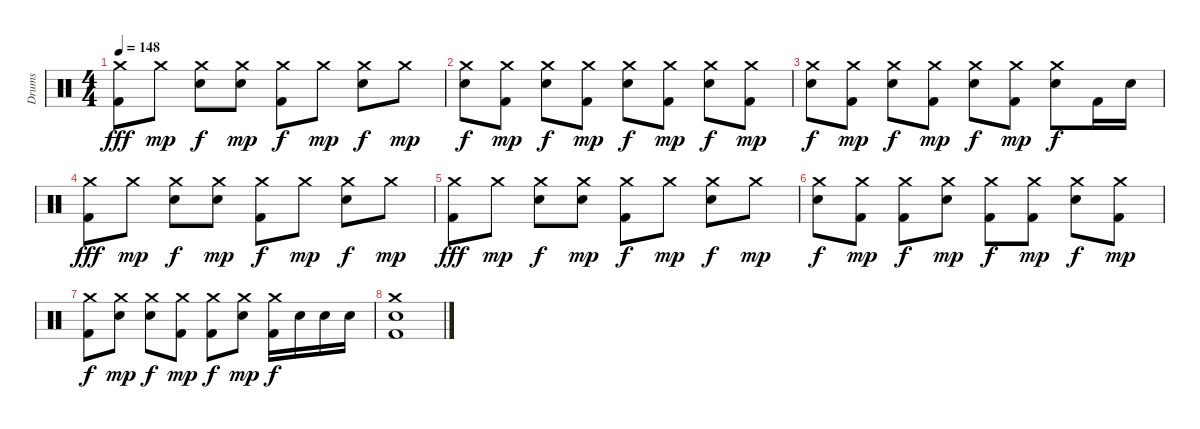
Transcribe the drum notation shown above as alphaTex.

\track ("Drums" "Drums") {instrument percussion}
\staff {score}
\articulation defaults
\ts (4 4)
\tempo 148
\clef neutral
\ks c
("Crash medium (hit)" "Kick (hit) 2").8{dy fff} "Crash medium (hit)".8{dy mp} ("Crash medium (hit)" "Snare (hit) 2").8{dy f} ("Crash medium (hit)" "Snare (hit) 2").8{dy mp} ("Crash medium (hit)" "Kick (hit) 2").8{dy f} "Crash medium (hit)".8{dy mp} ("Crash medium (hit)" "Snare (hit) 2").8{dy f} "Crash medium (hit)".8{dy mp} |
("Crash medium (hit)" "Snare (hit) 2").8{dy f} ("Crash medium (hit)" "Kick (hit) 2").8{dy mp} ("Crash medium (hit)" "Snare (hit) 2").8{dy f} ("Crash medium (hit)" "Kick (hit) 2").8{dy mp} ("Crash medium (hit)" "Snare (hit) 2").8{dy f} ("Crash medium (hit)" "Kick (hit) 2").8{dy mp} ("Crash medium (hit)" "Snare (hit) 2").8{dy f} ("Crash medium (hit)" "Kick (hit) 2").8{dy mp} |
("Crash medium (hit)" "Snare (hit) 2").8{dy f} ("Crash medium (hit)" "Kick (hit) 2").8{dy mp} ("Crash medium (hit)" "Snare (hit) 2").8{dy f} ("Crash medium (hit)" "Kick (hit) 2").8{dy mp} ("Crash medium (hit)" "Snare (hit) 2").8{dy f} ("Crash medium (hit)" "Kick (hit) 2").8{dy mp} ("Crash medium (hit)" "Snare (hit) 2").8{dy f} "Kick (hit) 2".16 "Snare (hit) 2".16 |
("Crash medium (hit)" "Kick (hit) 2").8{dy fff} "Crash medium (hit)".8{dy mp} ("Crash medium (hit)" "Snare (hit) 2").8{dy f} ("Crash medium (hit)" "Snare (hit) 2").8{dy mp} ("Crash medium (hit)" "Kick (hit) 2").8{dy f} "Crash medium (hit)".8{dy mp} ("Crash medium (hit)" "Snare (hit) 2").8{dy f} "Crash medium (hit)".8{dy mp} |
("Crash medium (hit)" "Kick (hit) 2").8{dy fff} "Crash medium (hit)".8{dy mp} ("Crash medium (hit)" "Snare (hit) 2").8{dy f} ("Crash medium (hit)" "Snare (hit) 2").8{dy mp} ("Crash medium (hit)" "Kick (hit) 2").8{dy f} "Crash medium (hit)".8{dy mp} ("Crash medium (hit)" "Snare (hit) 2").8{dy f} "Crash medium (hit)".8{dy mp} |
("Crash medium (hit)" "Snare (hit) 2").8{dy f} ("Crash medium (hit)" "Kick (hit) 2").8{dy mp} ("Crash medium (hit)" "Kick (hit) 2").8{dy f} ("Crash medium (hit)" "Snare (hit) 2").8{dy mp} ("Crash medium (hit)" "Kick (hit) 2").8{dy f} ("Crash medium (hit)" "Kick (hit) 2").8{dy mp} ("Crash medium (hit)" "Snare (hit) 2").8{dy f} ("Crash medium (hit)" "Kick (hit) 2").8{dy mp} |
("Crash medium (hit)" "Kick (hit) 2").8{dy f} ("Crash medium (hit)" "Snare (hit) 2").8{dy mp} ("Crash medium (hit)" "Snare (hit) 2").8{dy f} ("Crash medium (hit)" "Kick (hit) 2").8{dy mp} ("Crash medium (hit)" "Kick (hit) 2").8{dy f} ("Crash medium (hit)" "Snare (hit) 2").8{dy mp} ("Crash medium (hit)" "Kick (hit) 2").16{dy f} "Snare (hit) 2".16 "Snare (hit) 2".16 "Snare (hit) 2".16 |
("Crash medium (hit)" "Snare (hit) 2" "Kick (hit) 2").1
